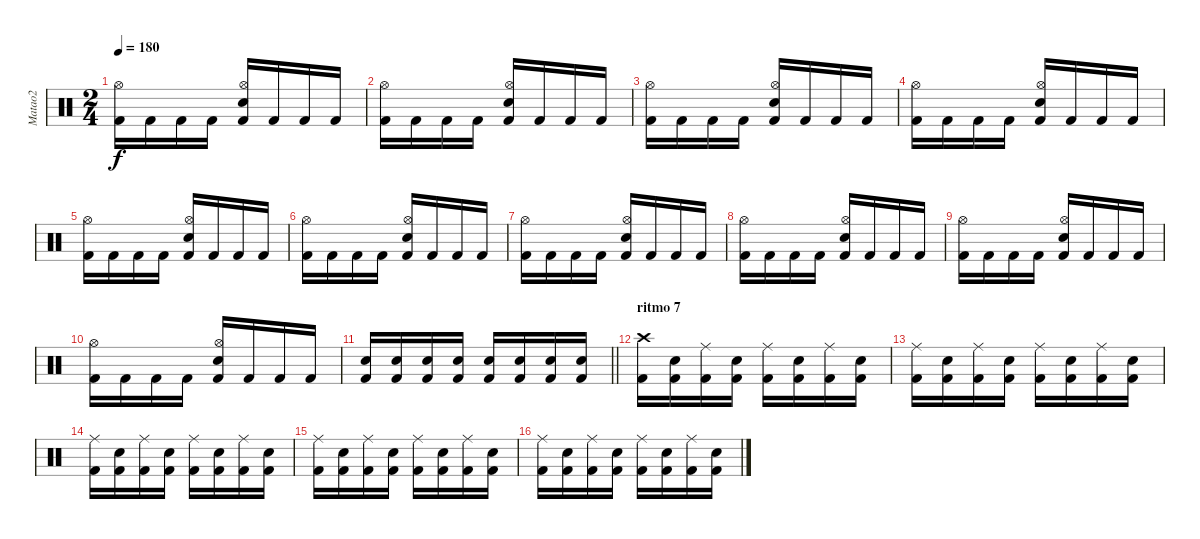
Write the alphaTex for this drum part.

\track ("Matao2" "Matao2") {instrument percussion}
\staff {score}
\articulation defaults
\ts (2 4)
\tempo 180
\clef neutral
\ks c
("Kick (hit) 2" "Hi-Hat (open)").16{dy f} "Kick (hit) 2".16 "Kick (hit) 2".16 "Kick (hit) 2".16 ("Kick (hit) 2" "Electric Snare (hit)" "Hi-Hat (open)").16 "Kick (hit) 2".16 "Kick (hit) 2".16 "Kick (hit) 2".16 |
("Kick (hit) 2" "Hi-Hat (open)").16 "Kick (hit) 2".16 "Kick (hit) 2".16 "Kick (hit) 2".16 ("Kick (hit) 2" "Electric Snare (hit)" "Hi-Hat (open)").16 "Kick (hit) 2".16 "Kick (hit) 2".16 "Kick (hit) 2".16 |
("Kick (hit) 2" "Hi-Hat (open)").16 "Kick (hit) 2".16 "Kick (hit) 2".16 "Kick (hit) 2".16 ("Kick (hit) 2" "Electric Snare (hit)" "Hi-Hat (open)").16 "Kick (hit) 2".16 "Kick (hit) 2".16 "Kick (hit) 2".16 |
("Kick (hit) 2" "Hi-Hat (open)").16 "Kick (hit) 2".16 "Kick (hit) 2".16 "Kick (hit) 2".16 ("Kick (hit) 2" "Electric Snare (hit)" "Hi-Hat (open)").16 "Kick (hit) 2".16 "Kick (hit) 2".16 "Kick (hit) 2".16 |
("Kick (hit) 2" "Hi-Hat (open)").16 "Kick (hit) 2".16 "Kick (hit) 2".16 "Kick (hit) 2".16 ("Kick (hit) 2" "Electric Snare (hit)" "Hi-Hat (open)").16 "Kick (hit) 2".16 "Kick (hit) 2".16 "Kick (hit) 2".16 |
("Kick (hit) 2" "Hi-Hat (open)").16 "Kick (hit) 2".16 "Kick (hit) 2".16 "Kick (hit) 2".16 ("Kick (hit) 2" "Electric Snare (hit)" "Hi-Hat (open)").16 "Kick (hit) 2".16 "Kick (hit) 2".16 "Kick (hit) 2".16 |
("Kick (hit) 2" "Hi-Hat (open)").16 "Kick (hit) 2".16 "Kick (hit) 2".16 "Kick (hit) 2".16 ("Kick (hit) 2" "Electric Snare (hit)" "Hi-Hat (open)").16 "Kick (hit) 2".16 "Kick (hit) 2".16 "Kick (hit) 2".16 |
("Kick (hit) 2" "Hi-Hat (open)").16 "Kick (hit) 2".16 "Kick (hit) 2".16 "Kick (hit) 2".16 ("Kick (hit) 2" "Electric Snare (hit)" "Hi-Hat (open)").16 "Kick (hit) 2".16 "Kick (hit) 2".16 "Kick (hit) 2".16 |
("Kick (hit) 2" "Hi-Hat (open)").16 "Kick (hit) 2".16 "Kick (hit) 2".16 "Kick (hit) 2".16 ("Kick (hit) 2" "Electric Snare (hit)" "Hi-Hat (open)").16 "Kick (hit) 2".16 "Kick (hit) 2".16 "Kick (hit) 2".16 |
("Kick (hit) 2" "Hi-Hat (open)").16 "Kick (hit) 2".16 "Kick (hit) 2".16 "Kick (hit) 2".16 ("Kick (hit) 2" "Electric Snare (hit)" "Hi-Hat (open)").16 "Kick (hit) 2".16 "Kick (hit) 2".16 "Kick (hit) 2".16 |
\barLineRight lightlight
("Kick (hit) 2" "Electric Snare (hit)").16 ("Kick (hit) 2" "Electric Snare (hit)").16 ("Kick (hit) 2" "Electric Snare (hit)").16 ("Kick (hit) 2" "Electric Snare (hit)").16 ("Kick (hit) 2" "Electric Snare (hit)").16 ("Kick (hit) 2" "Electric Snare (hit)").16 ("Kick (hit) 2" "Electric Snare (hit)").16 ("Kick (hit) 2" "Electric Snare (hit)").16 |
\section ("" "ritmo 7")
("Kick (hit) 2" "Crash high (hit)").16 ("Kick (hit) 2" "Electric Snare (hit)").16 ("Kick (hit) 2" "Ride (middle)").16 ("Kick (hit) 2" "Electric Snare (hit)").16 ("Kick (hit) 2" "Ride (middle)").16 ("Kick (hit) 2" "Electric Snare (hit)").16 ("Kick (hit) 2" "Ride (middle)").16 ("Kick (hit) 2" "Electric Snare (hit)").16 |
("Kick (hit) 2" "Ride (middle)").16 ("Kick (hit) 2" "Electric Snare (hit)").16 ("Kick (hit) 2" "Ride (middle)").16 ("Kick (hit) 2" "Electric Snare (hit)").16 ("Kick (hit) 2" "Ride (middle)").16 ("Kick (hit) 2" "Electric Snare (hit)").16 ("Kick (hit) 2" "Ride (middle)").16 ("Kick (hit) 2" "Electric Snare (hit)").16 |
("Kick (hit) 2" "Ride (middle)").16 ("Kick (hit) 2" "Electric Snare (hit)").16 ("Kick (hit) 2" "Ride (middle)").16 ("Kick (hit) 2" "Electric Snare (hit)").16 ("Kick (hit) 2" "Ride (middle)").16 ("Kick (hit) 2" "Electric Snare (hit)").16 ("Kick (hit) 2" "Ride (middle)").16 ("Kick (hit) 2" "Electric Snare (hit)").16 |
("Kick (hit) 2" "Ride (middle)").16 ("Kick (hit) 2" "Electric Snare (hit)").16 ("Kick (hit) 2" "Ride (middle)").16 ("Kick (hit) 2" "Electric Snare (hit)").16 ("Kick (hit) 2" "Ride (middle)").16 ("Kick (hit) 2" "Electric Snare (hit)").16 ("Kick (hit) 2" "Ride (middle)").16 ("Kick (hit) 2" "Electric Snare (hit)").16 |
("Kick (hit) 2" "Ride (middle)").16 ("Kick (hit) 2" "Electric Snare (hit)").16 ("Kick (hit) 2" "Ride (middle)").16 ("Kick (hit) 2" "Electric Snare (hit)").16 ("Kick (hit) 2" "Ride (middle)").16 ("Kick (hit) 2" "Electric Snare (hit)").16 ("Kick (hit) 2" "Ride (middle)").16 ("Kick (hit) 2" "Electric Snare (hit)").16
